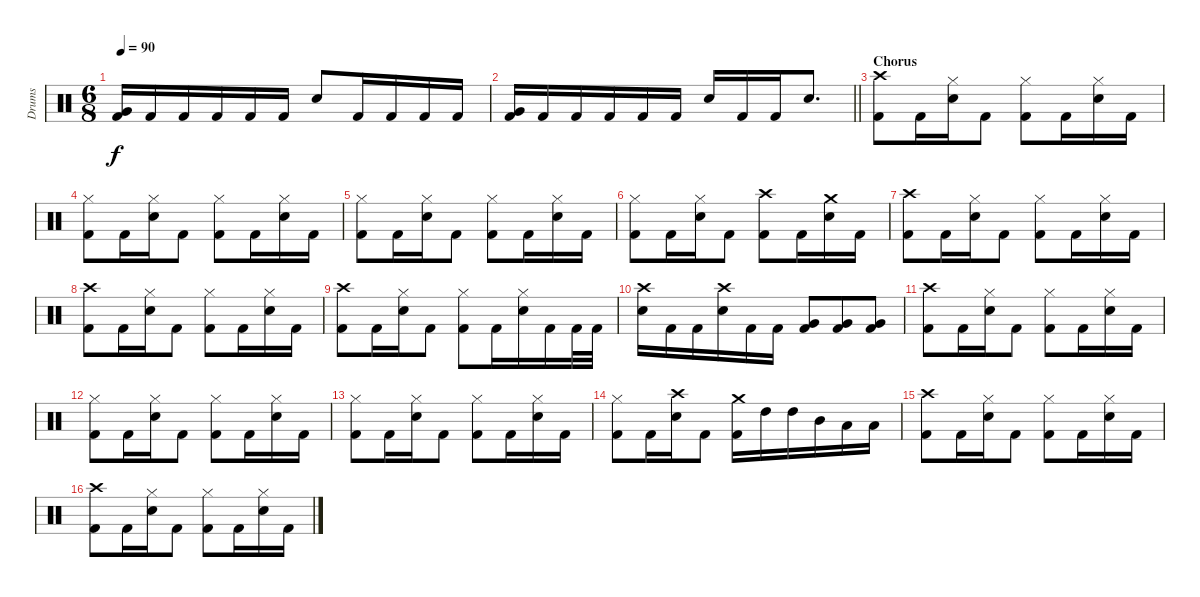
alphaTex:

\track ("Drums" "Drums") {instrument percussion}
\staff {score}
\articulation defaults
\ts (6 8)
\tempo 90
\clef neutral
\ks c
("Kick (hit) 2" "Very Low Tom (hit)").16{dy f} "Kick (hit) 2".16 "Kick (hit) 2".16 "Kick (hit) 2".16 "Kick (hit) 2".16 "Kick (hit) 2".16 "Snare (hit) 2".8 "Kick (hit) 2".16 "Kick (hit) 2".16 "Kick (hit) 2".16 "Kick (hit) 2".16 |
\barLineRight lightlight
("Kick (hit) 2" "Very Low Tom (hit)").16 "Kick (hit) 2".16 "Kick (hit) 2".16 "Kick (hit) 2".16 "Kick (hit) 2".16 "Kick (hit) 2".16 "Snare (hit) 2".16 "Kick (hit) 2".16 "Kick (hit) 2".16 "Snare (hit) 2".8{d} |
\section ("" "Chorus")
("Crash high (hit)" "Kick (hit) 2").8 "Kick (hit) 2".16 ("Hi-Hat (closed)" "Snare (hit) 2").16 "Kick (hit) 2".8 ("Hi-Hat (closed)" "Kick (hit) 2").8 "Kick (hit) 2".16 ("Hi-Hat (closed)" "Snare (hit) 2").16 "Kick (hit) 2".16 |
("Hi-Hat (closed)" "Kick (hit) 2").8 "Kick (hit) 2".16 ("Hi-Hat (closed)" "Snare (hit) 2").16 "Kick (hit) 2".8 ("Hi-Hat (closed)" "Kick (hit) 2").8 "Kick (hit) 2".16 ("Hi-Hat (closed)" "Snare (hit) 2").16 "Kick (hit) 2".16 |
("Hi-Hat (closed)" "Kick (hit) 2").8 "Kick (hit) 2".16 ("Hi-Hat (closed)" "Snare (hit) 2").16 "Kick (hit) 2".8 ("Hi-Hat (closed)" "Kick (hit) 2").8 "Kick (hit) 2".16 ("Hi-Hat (closed)" "Snare (hit) 2").16 "Kick (hit) 2".16 |
("Hi-Hat (closed)" "Kick (hit) 2").8 "Kick (hit) 2".16 ("Hi-Hat (closed)" "Snare (hit) 2").16 "Kick (hit) 2".8 ("Crash high (hit)" "Kick (hit) 2").8 "Kick (hit) 2".16 ("Crash medium (hit)" "Snare (hit) 2").16 "Kick (hit) 2".16 |
("Crash high (hit)" "Kick (hit) 2").8 "Kick (hit) 2".16 ("Hi-Hat (closed)" "Snare (hit) 2").16 "Kick (hit) 2".8 ("Hi-Hat (closed)" "Kick (hit) 2").8 "Kick (hit) 2".16 ("Hi-Hat (closed)" "Snare (hit) 2").16 "Kick (hit) 2".16 |
("Crash high (hit)" "Kick (hit) 2").8 "Kick (hit) 2".16 ("Hi-Hat (closed)" "Snare (hit) 2").16 "Kick (hit) 2".8 ("Hi-Hat (closed)" "Kick (hit) 2").8 "Kick (hit) 2".16 ("Hi-Hat (closed)" "Snare (hit) 2").16 "Kick (hit) 2".16 |
("Crash high (hit)" "Kick (hit) 2").8 "Kick (hit) 2".16 ("Hi-Hat (closed)" "Snare (hit) 2").16 "Kick (hit) 2".8 ("Hi-Hat (closed)" "Kick (hit) 2").8 "Kick (hit) 2".16 ("Hi-Hat (closed)" "Snare (hit) 2").16 "Kick (hit) 2".16 "Kick (hit) 2".32 "Kick (hit) 2".32 |
("Crash high (hit)" "Snare (hit) 2").16 "Kick (hit) 2".16 "Kick (hit) 2".16 ("Crash high (hit)" "Snare (hit) 2").16 "Kick (hit) 2".16 "Kick (hit) 2".16 ("Kick (hit) 2" "Very Low Tom (hit)").8 ("Kick (hit) 2" "Very Low Tom (hit)").8 ("Kick (hit) 2" "Very Low Tom (hit)").8 |
("Crash high (hit)" "Kick (hit) 2").8 "Kick (hit) 2".16 ("Hi-Hat (closed)" "Snare (hit) 2").16 "Kick (hit) 2".8 ("Hi-Hat (closed)" "Kick (hit) 2").8 "Kick (hit) 2".16 ("Hi-Hat (closed)" "Snare (hit) 2").16 "Kick (hit) 2".16 |
("Hi-Hat (closed)" "Kick (hit) 2").8 "Kick (hit) 2".16 ("Hi-Hat (closed)" "Snare (hit) 2").16 "Kick (hit) 2".8 ("Hi-Hat (closed)" "Kick (hit) 2").8 "Kick (hit) 2".16 ("Hi-Hat (closed)" "Snare (hit) 2").16 "Kick (hit) 2".16 |
("Hi-Hat (closed)" "Kick (hit) 2").8 "Kick (hit) 2".16 ("Hi-Hat (closed)" "Snare (hit) 2").16 "Kick (hit) 2".8 ("Hi-Hat (closed)" "Kick (hit) 2").8 "Kick (hit) 2".16 ("Hi-Hat (closed)" "Snare (hit) 2").16 "Kick (hit) 2".16 |
("Hi-Hat (closed)" "Kick (hit) 2").8 "Kick (hit) 2".16 ("Crash high (hit)" "Snare (hit) 2").16 "Kick (hit) 2".8 ("Crash medium (hit)" "Kick (hit) 2").16 "High Tom (hit)".16 "High Tom (hit)".16 "Mid Tom (hit)".16 "Low Tom (hit)".16 "Low Tom (hit)".16 |
("Crash high (hit)" "Kick (hit) 2").8 "Kick (hit) 2".16 ("Hi-Hat (closed)" "Snare (hit) 2").16 "Kick (hit) 2".8 ("Hi-Hat (closed)" "Kick (hit) 2").8 "Kick (hit) 2".16 ("Hi-Hat (closed)" "Snare (hit) 2").16 "Kick (hit) 2".16 |
("Crash high (hit)" "Kick (hit) 2").8 "Kick (hit) 2".16 ("Hi-Hat (closed)" "Snare (hit) 2").16 "Kick (hit) 2".8 ("Hi-Hat (closed)" "Kick (hit) 2").8 "Kick (hit) 2".16 ("Hi-Hat (closed)" "Snare (hit) 2").16 "Kick (hit) 2".16
